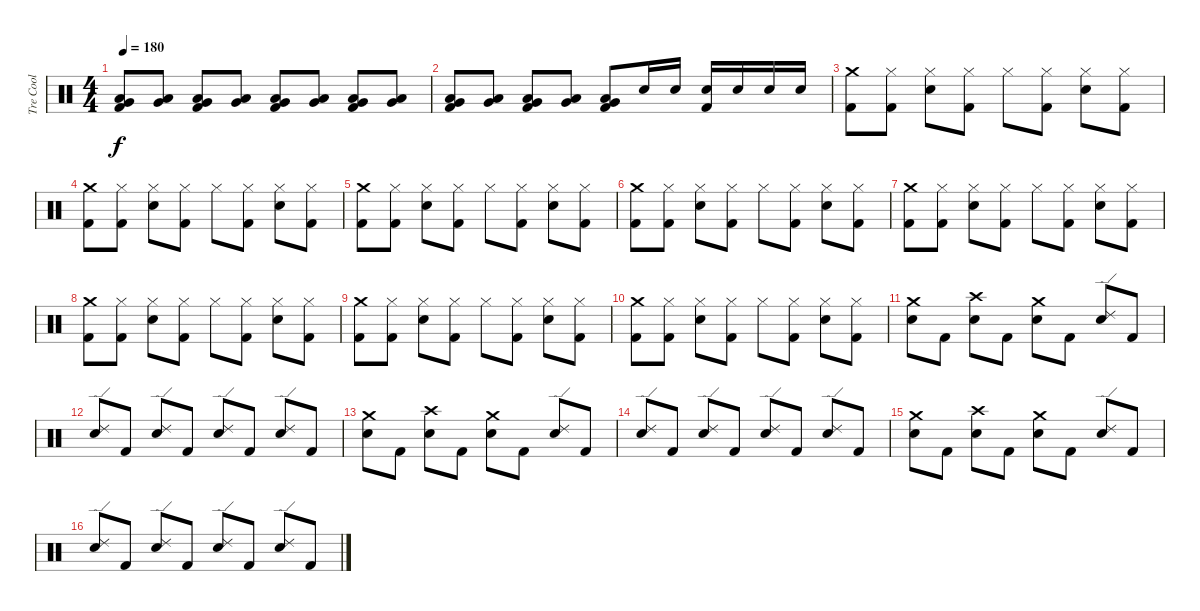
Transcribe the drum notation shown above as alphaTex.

\track ("Tre Cool" "Tre Cool") {instrument percussion}
\staff {score}
\articulation defaults
\ts (4 4)
\tempo 180
\clef neutral
\ks c
("Kick (hit) 2" "Low Floor Tom (hit)" "Very Low Tom (hit)").8{dy f} ("Low Floor Tom (hit)" "Very Low Tom (hit)").8 ("Kick (hit) 2" "Low Floor Tom (hit)" "Very Low Tom (hit)").8 ("Low Floor Tom (hit)" "Very Low Tom (hit)").8 ("Kick (hit) 2" "Low Floor Tom (hit)" "Very Low Tom (hit)").8 ("Low Floor Tom (hit)" "Very Low Tom (hit)").8 ("Kick (hit) 2" "Low Floor Tom (hit)" "Very Low Tom (hit)").8 ("Low Floor Tom (hit)" "Very Low Tom (hit)").8 |
("Kick (hit) 2" "Low Floor Tom (hit)" "Very Low Tom (hit)").8 ("Low Floor Tom (hit)" "Very Low Tom (hit)").8 ("Kick (hit) 2" "Low Floor Tom (hit)" "Very Low Tom (hit)").8 ("Low Floor Tom (hit)" "Very Low Tom (hit)").8 ("Kick (hit) 2" "Low Floor Tom (hit)" "Very Low Tom (hit)").8 "Snare (hit) 2".16 "Snare (hit) 2".16 ("Kick (hit) 2" "Snare (hit) 2").16 "Snare (hit) 2".16 "Snare (hit) 2".16 "Snare (hit) 2".16 |
("Kick (hit) 2" "Crash medium (hit)").8 ("Kick (hit) 2" "Hi-Hat (closed)").8 ("Snare (hit) 2" "Hi-Hat (closed)").8 ("Kick (hit) 2" "Hi-Hat (closed)").8 "Hi-Hat (closed)".8 ("Kick (hit) 2" "Hi-Hat (closed)").8 ("Snare (hit) 2" "Hi-Hat (closed)").8 ("Kick (hit) 2" "Hi-Hat (closed)").8 |
("Kick (hit) 2" "Crash medium (hit)").8 ("Kick (hit) 2" "Hi-Hat (closed)").8 ("Snare (hit) 2" "Hi-Hat (closed)").8 ("Kick (hit) 2" "Hi-Hat (closed)").8 "Hi-Hat (closed)".8 ("Kick (hit) 2" "Hi-Hat (closed)").8 ("Snare (hit) 2" "Hi-Hat (closed)").8 ("Kick (hit) 2" "Hi-Hat (closed)").8 |
("Kick (hit) 2" "Crash medium (hit)").8 ("Kick (hit) 2" "Hi-Hat (closed)").8 ("Snare (hit) 2" "Hi-Hat (closed)").8 ("Kick (hit) 2" "Hi-Hat (closed)").8 "Hi-Hat (closed)".8 ("Kick (hit) 2" "Hi-Hat (closed)").8 ("Snare (hit) 2" "Hi-Hat (closed)").8 ("Kick (hit) 2" "Hi-Hat (closed)").8 |
("Kick (hit) 2" "Crash medium (hit)").8 ("Kick (hit) 2" "Hi-Hat (closed)").8 ("Snare (hit) 2" "Hi-Hat (closed)").8 ("Kick (hit) 2" "Hi-Hat (closed)").8 "Hi-Hat (closed)".8 ("Kick (hit) 2" "Hi-Hat (closed)").8 ("Snare (hit) 2" "Hi-Hat (closed)").8 ("Kick (hit) 2" "Hi-Hat (closed)").8 |
("Kick (hit) 2" "Crash medium (hit)").8 ("Kick (hit) 2" "Hi-Hat (closed)").8 ("Snare (hit) 2" "Hi-Hat (closed)").8 ("Kick (hit) 2" "Hi-Hat (closed)").8 "Hi-Hat (closed)".8 ("Kick (hit) 2" "Hi-Hat (closed)").8 ("Snare (hit) 2" "Hi-Hat (closed)").8 ("Kick (hit) 2" "Hi-Hat (closed)").8 |
("Kick (hit) 2" "Crash medium (hit)").8 ("Kick (hit) 2" "Hi-Hat (closed)").8 ("Snare (hit) 2" "Hi-Hat (closed)").8 ("Kick (hit) 2" "Hi-Hat (closed)").8 "Hi-Hat (closed)".8 ("Kick (hit) 2" "Hi-Hat (closed)").8 ("Snare (hit) 2" "Hi-Hat (closed)").8 ("Kick (hit) 2" "Hi-Hat (closed)").8 |
("Kick (hit) 2" "Crash medium (hit)").8 ("Kick (hit) 2" "Hi-Hat (closed)").8 ("Snare (hit) 2" "Hi-Hat (closed)").8 ("Kick (hit) 2" "Hi-Hat (closed)").8 "Hi-Hat (closed)".8 ("Kick (hit) 2" "Hi-Hat (closed)").8 ("Snare (hit) 2" "Hi-Hat (closed)").8 ("Kick (hit) 2" "Hi-Hat (closed)").8 |
("Kick (hit) 2" "Crash medium (hit)").8 ("Kick (hit) 2" "Hi-Hat (closed)").8 ("Snare (hit) 2" "Hi-Hat (closed)").8 ("Kick (hit) 2" "Hi-Hat (closed)").8 "Hi-Hat (closed)".8 ("Kick (hit) 2" "Hi-Hat (closed)").8 ("Snare (hit) 2" "Hi-Hat (closed)").8 ("Kick (hit) 2" "Hi-Hat (closed)").8 |
("Snare (hit) 2" "Crash medium (hit)").8 "Kick (hit) 2".8 ("Snare (hit) 2" "Crash high (hit)").8 "Kick (hit) 2".8 ("Snare (hit) 2" "Crash medium (hit)").8 "Kick (hit) 2".8 ("Snare (hit) 2" "Ride (edge) 2").8 "Kick (hit) 2".8 |
("Snare (hit) 2" "Ride (edge) 2").8 "Kick (hit) 2".8 ("Snare (hit) 2" "Ride (edge) 2").8 "Kick (hit) 2".8 ("Snare (hit) 2" "Ride (edge) 2").8 "Kick (hit) 2".8 ("Snare (hit) 2" "Ride (edge) 2").8 "Kick (hit) 2".8 |
("Snare (hit) 2" "Crash medium (hit)").8 "Kick (hit) 2".8 ("Snare (hit) 2" "Crash high (hit)").8 "Kick (hit) 2".8 ("Snare (hit) 2" "Crash medium (hit)").8 "Kick (hit) 2".8 ("Snare (hit) 2" "Ride (edge) 2").8 "Kick (hit) 2".8 |
("Snare (hit) 2" "Ride (edge) 2").8 "Kick (hit) 2".8 ("Snare (hit) 2" "Ride (edge) 2").8 "Kick (hit) 2".8 ("Snare (hit) 2" "Ride (edge) 2").8 "Kick (hit) 2".8 ("Snare (hit) 2" "Ride (edge) 2").8 "Kick (hit) 2".8 |
("Snare (hit) 2" "Crash medium (hit)").8 "Kick (hit) 2".8 ("Snare (hit) 2" "Crash high (hit)").8 "Kick (hit) 2".8 ("Snare (hit) 2" "Crash medium (hit)").8 "Kick (hit) 2".8 ("Snare (hit) 2" "Ride (edge) 2").8 "Kick (hit) 2".8 |
("Snare (hit) 2" "Ride (edge) 2").8 "Kick (hit) 2".8 ("Snare (hit) 2" "Ride (edge) 2").8 "Kick (hit) 2".8 ("Snare (hit) 2" "Ride (edge) 2").8 "Kick (hit) 2".8 ("Snare (hit) 2" "Ride (edge) 2").8 "Kick (hit) 2".8
